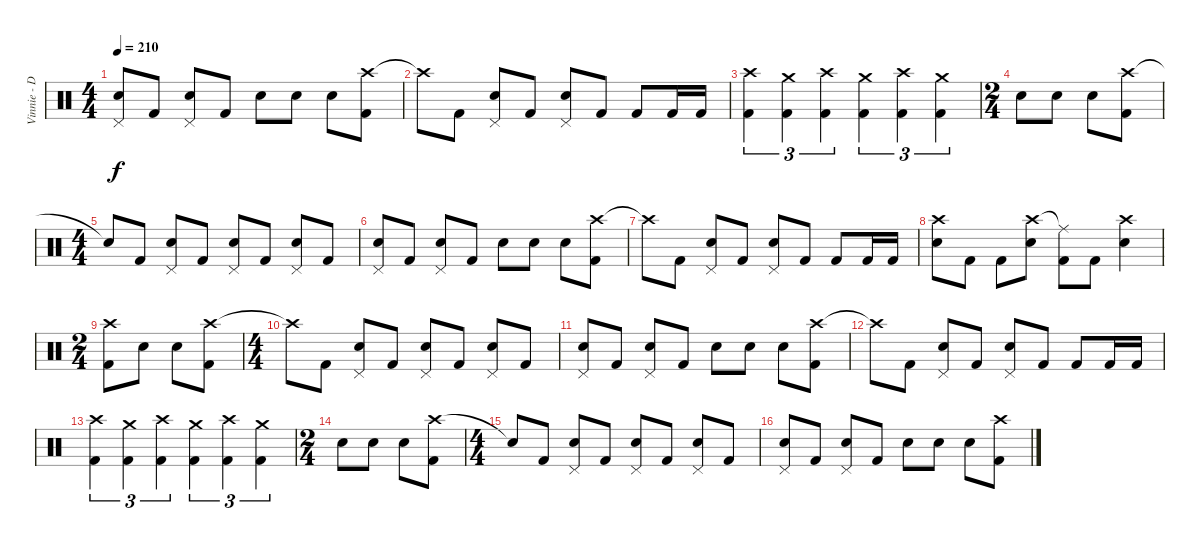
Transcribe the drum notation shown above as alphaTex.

\track ("Vinnie - Drums" "Vinnie - D") {instrument percussion}
\staff {score}
\articulation defaults
\ts (4 4)
\tempo 210
\clef neutral
\ks c
("Pedal Hi-Hat (hit)" "Electric Snare (hit)").8{dy f} "Kick (hit) 2".8 ("Pedal Hi-Hat (hit)" "Electric Snare (hit)").8 "Kick (hit) 2".8 "Electric Snare (hit)".8 "Electric Snare (hit)".8 "Electric Snare (hit)".8 ("Crash high (hit)" "Kick (hit) 2").8 |
"Crash high (hit)"{t}.8 "Kick (hit) 2".8 ("Pedal Hi-Hat (hit)" "Electric Snare (hit)").8 "Kick (hit) 2".8 ("Pedal Hi-Hat (hit)" "Electric Snare (hit)").8 "Kick (hit) 2".8 "Kick (hit) 2".8 "Kick (hit) 2".16 "Kick (hit) 2".16 |
("Crash high (hit)" "Kick (hit) 2").4{tu (3 2)} ("Crash medium (hit)" "Kick (hit) 2").4{tu (3 2)} ("Crash high (hit)" "Kick (hit) 2").4{tu (3 2)} ("Crash medium (hit)" "Kick (hit) 2").4{tu (3 2)} ("Crash high (hit)" "Kick (hit) 2").4{tu (3 2)} ("Crash medium (hit)" "Kick (hit) 2").4{tu (3 2)} |
\ts (2 4)
"Electric Snare (hit)".8 "Electric Snare (hit)".8 "Electric Snare (hit)".8 ("Crash high (hit)" "Kick (hit) 2").8 |
\ts (4 4)
"Snare (hit)"{t}.8 "Kick (hit) 2".8 ("Pedal Hi-Hat (hit)" "Electric Snare (hit)").8 "Kick (hit) 2".8 ("Pedal Hi-Hat (hit)" "Electric Snare (hit)").8 "Kick (hit) 2".8 ("Pedal Hi-Hat (hit)" "Electric Snare (hit)").8 "Kick (hit) 2".8 |
("Pedal Hi-Hat (hit)" "Electric Snare (hit)").8 "Kick (hit) 2".8 ("Pedal Hi-Hat (hit)" "Electric Snare (hit)").8 "Kick (hit) 2".8 "Electric Snare (hit)".8 "Electric Snare (hit)".8 "Electric Snare (hit)".8 ("Crash high (hit)" "Kick (hit) 2").8 |
"Crash high (hit)"{t}.8 "Kick (hit) 2".8 ("Pedal Hi-Hat (hit)" "Electric Snare (hit)").8 "Kick (hit) 2".8 ("Pedal Hi-Hat (hit)" "Electric Snare (hit)").8 "Kick (hit) 2".8 "Kick (hit) 2".8 "Kick (hit) 2".16 "Kick (hit) 2".16 |
("Crash high (hit)" "Electric Snare (hit)").8 "Kick (hit) 2".8 "Kick (hit) 2".8 ("Crash high (hit)" "Electric Snare (hit)").8 ("Ride (middle)"{t} "Kick (hit) 2").8 "Kick (hit) 2".8 ("Crash high (hit)" "Electric Snare (hit)").4 |
\ts (2 4)
("Crash high (hit)" "Kick (hit) 2").8 "Electric Snare (hit)".8 "Electric Snare (hit)".8 ("Crash high (hit)" "Kick (hit) 2").8 |
\ts (4 4)
"Crash high (hit)"{t}.8 "Kick (hit) 2".8 ("Pedal Hi-Hat (hit)" "Electric Snare (hit)").8 "Kick (hit) 2".8 ("Pedal Hi-Hat (hit)" "Electric Snare (hit)").8 "Kick (hit) 2".8 ("Pedal Hi-Hat (hit)" "Electric Snare (hit)").8 "Kick (hit) 2".8 |
("Pedal Hi-Hat (hit)" "Electric Snare (hit)").8 "Kick (hit) 2".8 ("Pedal Hi-Hat (hit)" "Electric Snare (hit)").8 "Kick (hit) 2".8 "Electric Snare (hit)".8 "Electric Snare (hit)".8 "Electric Snare (hit)".8 ("Crash high (hit)" "Kick (hit) 2").8 |
"Crash high (hit)"{t}.8 "Kick (hit) 2".8 ("Pedal Hi-Hat (hit)" "Electric Snare (hit)").8 "Kick (hit) 2".8 ("Pedal Hi-Hat (hit)" "Electric Snare (hit)").8 "Kick (hit) 2".8 "Kick (hit) 2".8 "Kick (hit) 2".16 "Kick (hit) 2".16 |
("Crash high (hit)" "Kick (hit) 2").4{tu (3 2)} ("Crash medium (hit)" "Kick (hit) 2").4{tu (3 2)} ("Crash high (hit)" "Kick (hit) 2").4{tu (3 2)} ("Crash medium (hit)" "Kick (hit) 2").4{tu (3 2)} ("Crash high (hit)" "Kick (hit) 2").4{tu (3 2)} ("Crash medium (hit)" "Kick (hit) 2").4{tu (3 2)} |
\ts (2 4)
"Electric Snare (hit)".8 "Electric Snare (hit)".8 "Electric Snare (hit)".8 ("Crash high (hit)" "Kick (hit) 2").8 |
\ts (4 4)
"Snare (hit)"{t}.8 "Kick (hit) 2".8 ("Pedal Hi-Hat (hit)" "Electric Snare (hit)").8 "Kick (hit) 2".8 ("Pedal Hi-Hat (hit)" "Electric Snare (hit)").8 "Kick (hit) 2".8 ("Pedal Hi-Hat (hit)" "Electric Snare (hit)").8 "Kick (hit) 2".8 |
("Pedal Hi-Hat (hit)" "Electric Snare (hit)").8 "Kick (hit) 2".8 ("Pedal Hi-Hat (hit)" "Electric Snare (hit)").8 "Kick (hit) 2".8 "Electric Snare (hit)".8 "Electric Snare (hit)".8 "Electric Snare (hit)".8 ("Crash high (hit)" "Kick (hit) 2").8
